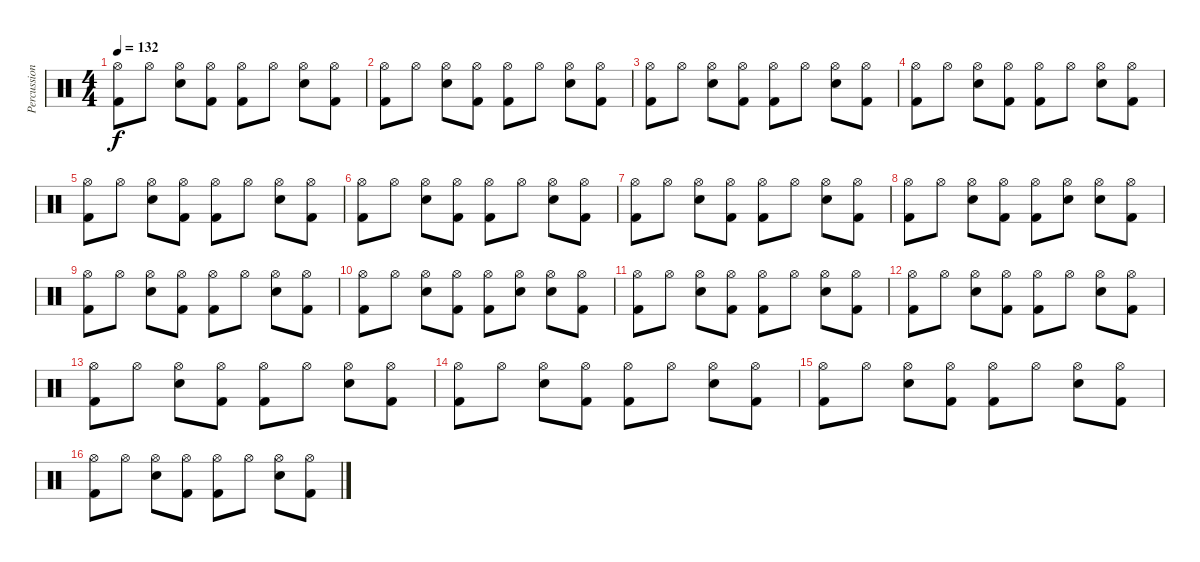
\track ("Percussion" "Percussion") {instrument percussion}
\staff {score}
\articulation defaults
\ts (4 4)
\tempo 132
\clef neutral
\ks c
("Hi-Hat (open)" "Kick (hit) 2").8{dy f} "Hi-Hat (open)".8 ("Hi-Hat (open)" "Electric Snare (hit)").8 ("Hi-Hat (open)" "Kick (hit) 2").8 ("Hi-Hat (open)" "Kick (hit) 2").8 "Hi-Hat (open)".8 ("Hi-Hat (open)" "Electric Snare (hit)").8 ("Hi-Hat (open)" "Kick (hit) 2").8 |
("Hi-Hat (open)" "Kick (hit) 2").8 "Hi-Hat (open)".8 ("Hi-Hat (open)" "Electric Snare (hit)").8 ("Hi-Hat (open)" "Kick (hit) 2").8 ("Hi-Hat (open)" "Kick (hit) 2").8 "Hi-Hat (open)".8 ("Hi-Hat (open)" "Electric Snare (hit)").8 ("Hi-Hat (open)" "Kick (hit) 2").8 |
("Hi-Hat (open)" "Kick (hit) 2").8 "Hi-Hat (open)".8 ("Hi-Hat (open)" "Electric Snare (hit)").8 ("Hi-Hat (open)" "Kick (hit) 2").8 ("Hi-Hat (open)" "Kick (hit) 2").8 "Hi-Hat (open)".8 ("Hi-Hat (open)" "Electric Snare (hit)").8 ("Hi-Hat (open)" "Kick (hit) 2").8 |
("Hi-Hat (open)" "Kick (hit) 2").8 "Hi-Hat (open)".8 ("Hi-Hat (open)" "Electric Snare (hit)").8 ("Hi-Hat (open)" "Kick (hit) 2").8 ("Hi-Hat (open)" "Kick (hit) 2").8 "Hi-Hat (open)".8 ("Hi-Hat (open)" "Electric Snare (hit)").8 ("Hi-Hat (open)" "Kick (hit) 2").8 |
("Hi-Hat (open)" "Kick (hit) 2").8 "Hi-Hat (open)".8 ("Hi-Hat (open)" "Electric Snare (hit)").8 ("Hi-Hat (open)" "Kick (hit) 2").8 ("Hi-Hat (open)" "Kick (hit) 2").8 "Hi-Hat (open)".8 ("Hi-Hat (open)" "Electric Snare (hit)").8 ("Hi-Hat (open)" "Kick (hit) 2").8 |
("Hi-Hat (open)" "Kick (hit) 2").8 "Hi-Hat (open)".8 ("Hi-Hat (open)" "Electric Snare (hit)").8 ("Hi-Hat (open)" "Kick (hit) 2").8 ("Hi-Hat (open)" "Kick (hit) 2").8 "Hi-Hat (open)".8 ("Hi-Hat (open)" "Electric Snare (hit)").8 ("Hi-Hat (open)" "Kick (hit) 2").8 |
("Hi-Hat (open)" "Kick (hit) 2").8 "Hi-Hat (open)".8 ("Hi-Hat (open)" "Electric Snare (hit)").8 ("Hi-Hat (open)" "Kick (hit) 2").8 ("Hi-Hat (open)" "Kick (hit) 2").8 "Hi-Hat (open)".8 ("Hi-Hat (open)" "Electric Snare (hit)").8 ("Hi-Hat (open)" "Kick (hit) 2").8 |
("Hi-Hat (open)" "Kick (hit) 2").8 "Hi-Hat (open)".8 ("Hi-Hat (open)" "Electric Snare (hit)").8 ("Hi-Hat (open)" "Kick (hit) 2").8 ("Hi-Hat (open)" "Kick (hit) 2").8 ("Hi-Hat (open)" "Electric Snare (hit)").8 ("Hi-Hat (open)" "Electric Snare (hit)").8 ("Hi-Hat (open)" "Kick (hit) 2").8 |
("Hi-Hat (open)" "Kick (hit) 2").8 "Hi-Hat (open)".8 ("Hi-Hat (open)" "Electric Snare (hit)").8 ("Hi-Hat (open)" "Kick (hit) 2").8 ("Hi-Hat (open)" "Kick (hit) 2").8 "Hi-Hat (open)".8 ("Hi-Hat (open)" "Electric Snare (hit)").8 ("Hi-Hat (open)" "Kick (hit) 2").8 |
("Hi-Hat (open)" "Kick (hit) 2").8 "Hi-Hat (open)".8 ("Hi-Hat (open)" "Electric Snare (hit)").8 ("Hi-Hat (open)" "Kick (hit) 2").8 ("Hi-Hat (open)" "Kick (hit) 2").8 ("Hi-Hat (open)" "Electric Snare (hit)").8 ("Hi-Hat (open)" "Electric Snare (hit)").8 ("Hi-Hat (open)" "Kick (hit) 2").8 |
("Hi-Hat (open)" "Kick (hit) 2").8 "Hi-Hat (open)".8 ("Hi-Hat (open)" "Electric Snare (hit)").8 ("Hi-Hat (open)" "Kick (hit) 2").8 ("Hi-Hat (open)" "Kick (hit) 2").8 "Hi-Hat (open)".8 ("Hi-Hat (open)" "Electric Snare (hit)").8 ("Hi-Hat (open)" "Kick (hit) 2").8 |
("Hi-Hat (open)" "Kick (hit) 2").8 "Hi-Hat (open)".8 ("Hi-Hat (open)" "Electric Snare (hit)").8 ("Hi-Hat (open)" "Kick (hit) 2").8 ("Hi-Hat (open)" "Kick (hit) 2").8 "Hi-Hat (open)".8 ("Hi-Hat (open)" "Electric Snare (hit)").8 ("Hi-Hat (open)" "Kick (hit) 2").8 |
("Hi-Hat (open)" "Kick (hit) 2").8 "Hi-Hat (open)".8 ("Hi-Hat (open)" "Electric Snare (hit)").8 ("Hi-Hat (open)" "Kick (hit) 2").8 ("Hi-Hat (open)" "Kick (hit) 2").8 "Hi-Hat (open)".8 ("Hi-Hat (open)" "Electric Snare (hit)").8 ("Hi-Hat (open)" "Kick (hit) 2").8 |
("Hi-Hat (open)" "Kick (hit) 2").8 "Hi-Hat (open)".8 ("Hi-Hat (open)" "Electric Snare (hit)").8 ("Hi-Hat (open)" "Kick (hit) 2").8 ("Hi-Hat (open)" "Kick (hit) 2").8 "Hi-Hat (open)".8 ("Hi-Hat (open)" "Electric Snare (hit)").8 ("Hi-Hat (open)" "Kick (hit) 2").8 |
("Hi-Hat (open)" "Kick (hit) 2").8 "Hi-Hat (open)".8 ("Hi-Hat (open)" "Electric Snare (hit)").8 ("Hi-Hat (open)" "Kick (hit) 2").8 ("Hi-Hat (open)" "Kick (hit) 2").8 "Hi-Hat (open)".8 ("Hi-Hat (open)" "Electric Snare (hit)").8 ("Hi-Hat (open)" "Kick (hit) 2").8 |
("Hi-Hat (open)" "Kick (hit) 2").8 "Hi-Hat (open)".8 ("Hi-Hat (open)" "Electric Snare (hit)").8 ("Hi-Hat (open)" "Kick (hit) 2").8 ("Hi-Hat (open)" "Kick (hit) 2").8 "Hi-Hat (open)".8 ("Hi-Hat (open)" "Electric Snare (hit)").8 ("Hi-Hat (open)" "Kick (hit) 2").8
